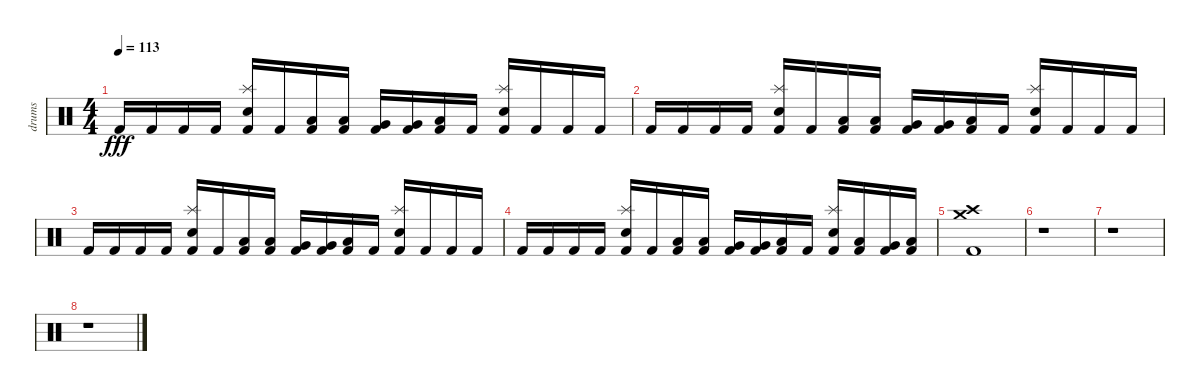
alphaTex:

\track ("drums" "drums") {instrument percussion}
\staff {score}
\articulation defaults
\ts (4 4)
\tempo 113
\clef neutral
\ks c "Kick (hit) 2".16{dy fff} "Kick (hit) 2".16 "Kick (hit) 2".16 "Kick (hit) 2".16
("Splash (hit)" "Electric Snare (hit)" "Kick (hit) 2").16 "Kick (hit) 2".16 ("Low Tom (hit)" "Kick (hit) 2").16 ("Low Tom (hit)" "Kick (hit) 2").16 ("Very Low Tom (hit)" "Kick (hit) 2").16 ("Very Low Tom (hit)" "Kick (hit) 2").16 ("Low Floor Tom (hit)" "Kick (hit) 2").16 "Kick (hit) 2".16 ("Splash (hit)" "Electric Snare (hit)" "Kick (hit) 2").16 "Kick (hit) 2".16 "Kick (hit) 2".16 "Kick (hit) 2".16 |
"Kick (hit) 2".16 "Kick (hit) 2".16 "Kick (hit) 2".16 "Kick (hit) 2".16 ("Splash (hit)" "Electric Snare (hit)" "Kick (hit) 2").16 "Kick (hit) 2".16 ("Low Tom (hit)" "Kick (hit) 2").16 ("Low Tom (hit)" "Kick (hit) 2").16 ("Very Low Tom (hit)" "Kick (hit) 2").16 ("Very Low Tom (hit)" "Kick (hit) 2").16 ("Low Floor Tom (hit)" "Kick (hit) 2").16 "Kick (hit) 2".16 ("Splash (hit)" "Electric Snare (hit)" "Kick (hit) 2").16 "Kick (hit) 2".16 "Kick (hit) 2".16 "Kick (hit) 2".16 |
"Kick (hit) 2".16 "Kick (hit) 2".16 "Kick (hit) 2".16 "Kick (hit) 2".16 ("Splash (hit)" "Electric Snare (hit)" "Kick (hit) 2").16 "Kick (hit) 2".16 ("Low Tom (hit)" "Kick (hit) 2").16 ("Low Tom (hit)" "Kick (hit) 2").16 ("Very Low Tom (hit)" "Kick (hit) 2").16 ("Very Low Tom (hit)" "Kick (hit) 2").16 ("Low Floor Tom (hit)" "Kick (hit) 2").16 "Kick (hit) 2".16 ("Splash (hit)" "Electric Snare (hit)" "Kick (hit) 2").16 "Kick (hit) 2".16 "Kick (hit) 2".16 "Kick (hit) 2".16 |
"Kick (hit) 2".16 "Kick (hit) 2".16 "Kick (hit) 2".16 "Kick (hit) 2".16 ("Splash (hit)" "Electric Snare (hit)" "Kick (hit) 2").16 "Kick (hit) 2".16 ("Low Tom (hit)" "Kick (hit) 2").16 ("Low Tom (hit)" "Kick (hit) 2").16 ("Very Low Tom (hit)" "Kick (hit) 2").16 ("Very Low Tom (hit)" "Kick (hit) 2").16 ("Low Floor Tom (hit)" "Kick (hit) 2").16 "Kick (hit) 2".16 ("Splash (hit)" "Electric Snare (hit)" "Kick (hit) 2").16 ("Low Tom (hit)" "Kick (hit) 2").16 ("Very Low Tom (hit)" "Kick (hit) 2").16 ("Low Floor Tom (hit)" "Kick (hit) 2").16 |
("Crash medium (hit)" "Crash high (hit)" "Kick (hit) 2").1 |
r.1 |
r.1 |
r.1
